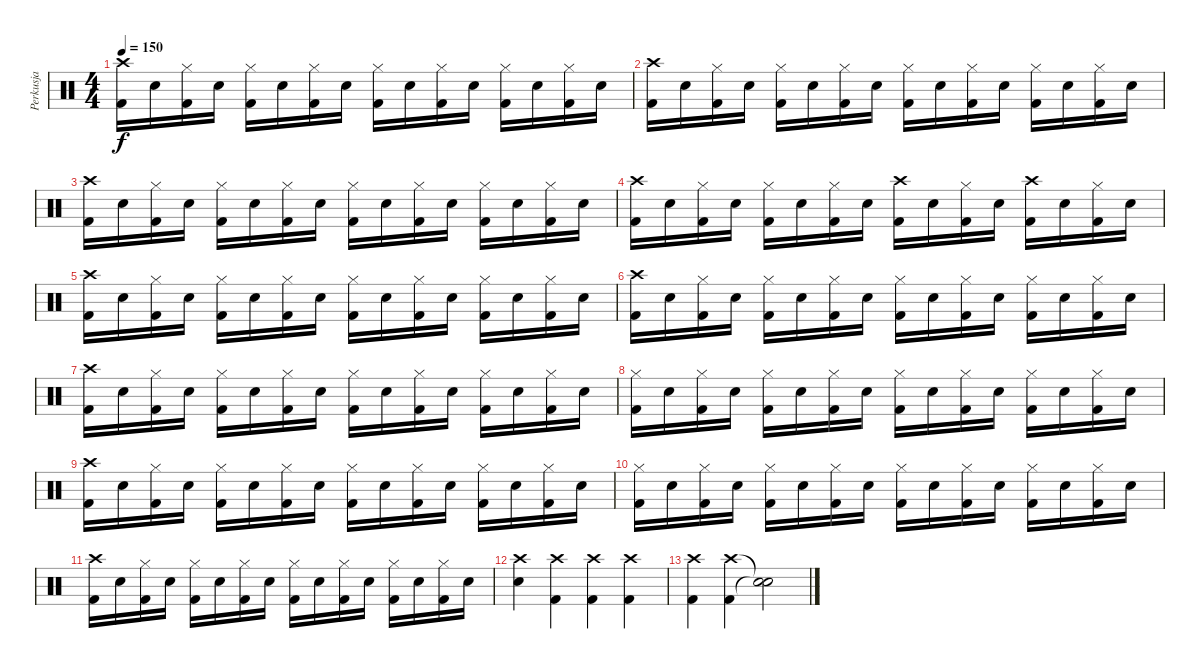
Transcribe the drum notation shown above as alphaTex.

\track ("Perkusja" "Perkusja") {instrument percussion}
\staff {score}
\articulation defaults
\ts (4 4)
\tempo 150
\clef neutral
\ks c
("Crash high (hit)" "Kick (hit) 2").16{dy f} "Snare (hit) 2".16 ("Hi-Hat (closed)" "Kick (hit) 2").16 "Snare (hit) 2".16 ("Hi-Hat (closed)" "Kick (hit) 2").16 "Snare (hit) 2".16 ("Hi-Hat (closed)" "Kick (hit) 2").16 "Snare (hit) 2".16 ("Hi-Hat (closed)" "Kick (hit) 2").16 "Snare (hit) 2".16 ("Hi-Hat (closed)" "Kick (hit) 2").16 "Snare (hit) 2".16 ("Hi-Hat (closed)" "Kick (hit) 2").16 "Snare (hit) 2".16 ("Hi-Hat (closed)" "Kick (hit) 2").16 "Snare (hit) 2".16 |
("Crash high (hit)" "Kick (hit) 2").16 "Snare (hit) 2".16 ("Hi-Hat (closed)" "Kick (hit) 2").16 "Snare (hit) 2".16 ("Hi-Hat (closed)" "Kick (hit) 2").16 "Snare (hit) 2".16 ("Hi-Hat (closed)" "Kick (hit) 2").16 "Snare (hit) 2".16 ("Hi-Hat (closed)" "Kick (hit) 2").16 "Snare (hit) 2".16 ("Hi-Hat (closed)" "Kick (hit) 2").16 "Snare (hit) 2".16 ("Hi-Hat (closed)" "Kick (hit) 2").16 "Snare (hit) 2".16 ("Hi-Hat (closed)" "Kick (hit) 2").16 "Snare (hit) 2".16 |
("Crash high (hit)" "Kick (hit) 2").16 "Snare (hit) 2".16 ("Hi-Hat (closed)" "Kick (hit) 2").16 "Snare (hit) 2".16 ("Hi-Hat (closed)" "Kick (hit) 2").16 "Snare (hit) 2".16 ("Hi-Hat (closed)" "Kick (hit) 2").16 "Snare (hit) 2".16 ("Hi-Hat (closed)" "Kick (hit) 2").16 "Snare (hit) 2".16 ("Hi-Hat (closed)" "Kick (hit) 2").16 "Snare (hit) 2".16 ("Hi-Hat (closed)" "Kick (hit) 2").16 "Snare (hit) 2".16 ("Hi-Hat (closed)" "Kick (hit) 2").16 "Snare (hit) 2".16 |
("Crash high (hit)" "Kick (hit) 2").16 "Snare (hit) 2".16 ("Hi-Hat (closed)" "Kick (hit) 2").16 "Snare (hit) 2".16 ("Hi-Hat (closed)" "Kick (hit) 2").16 "Snare (hit) 2".16 ("Hi-Hat (closed)" "Kick (hit) 2").16 "Snare (hit) 2".16 ("Crash high (hit)" "Kick (hit) 2").16 "Snare (hit) 2".16 ("Hi-Hat (closed)" "Kick (hit) 2").16 "Snare (hit) 2".16 ("Crash high (hit)" "Kick (hit) 2").16 "Snare (hit) 2".16 ("Hi-Hat (closed)" "Kick (hit) 2").16 "Snare (hit) 2".16 |
("Crash high (hit)" "Kick (hit) 2").16 "Snare (hit) 2".16 ("Hi-Hat (closed)" "Kick (hit) 2").16 "Snare (hit) 2".16 ("Hi-Hat (closed)" "Kick (hit) 2").16 "Snare (hit) 2".16 ("Hi-Hat (closed)" "Kick (hit) 2").16 "Snare (hit) 2".16 ("Hi-Hat (closed)" "Kick (hit) 2").16 "Snare (hit) 2".16 ("Hi-Hat (closed)" "Kick (hit) 2").16 "Snare (hit) 2".16 ("Hi-Hat (closed)" "Kick (hit) 2").16 "Snare (hit) 2".16 ("Hi-Hat (closed)" "Kick (hit) 2").16 "Snare (hit) 2".16 |
("Crash high (hit)" "Kick (hit) 2").16 "Snare (hit) 2".16 ("Hi-Hat (closed)" "Kick (hit) 2").16 "Snare (hit) 2".16 ("Hi-Hat (closed)" "Kick (hit) 2").16 "Snare (hit) 2".16 ("Hi-Hat (closed)" "Kick (hit) 2").16 "Snare (hit) 2".16 ("Hi-Hat (closed)" "Kick (hit) 2").16 "Snare (hit) 2".16 ("Hi-Hat (closed)" "Kick (hit) 2").16 "Snare (hit) 2".16 ("Hi-Hat (closed)" "Kick (hit) 2").16 "Snare (hit) 2".16 ("Hi-Hat (closed)" "Kick (hit) 2").16 "Snare (hit) 2".16 |
("Crash high (hit)" "Kick (hit) 2").16 "Snare (hit) 2".16 ("Hi-Hat (closed)" "Kick (hit) 2").16 "Snare (hit) 2".16 ("Hi-Hat (closed)" "Kick (hit) 2").16 "Snare (hit) 2".16 ("Hi-Hat (closed)" "Kick (hit) 2").16 "Snare (hit) 2".16 ("Hi-Hat (closed)" "Kick (hit) 2").16 "Snare (hit) 2".16 ("Hi-Hat (closed)" "Kick (hit) 2").16 "Snare (hit) 2".16 ("Hi-Hat (closed)" "Kick (hit) 2").16 "Snare (hit) 2".16 ("Hi-Hat (closed)" "Kick (hit) 2").16 "Snare (hit) 2".16 |
("Hi-Hat (closed)" "Kick (hit) 2").16 "Snare (hit) 2".16 ("Hi-Hat (closed)" "Kick (hit) 2").16 "Snare (hit) 2".16 ("Hi-Hat (closed)" "Kick (hit) 2").16 "Snare (hit) 2".16 ("Hi-Hat (closed)" "Kick (hit) 2").16 "Snare (hit) 2".16 ("Hi-Hat (closed)" "Kick (hit) 2").16 "Snare (hit) 2".16 ("Hi-Hat (closed)" "Kick (hit) 2").16 "Snare (hit) 2".16 ("Hi-Hat (closed)" "Kick (hit) 2").16 "Snare (hit) 2".16 ("Hi-Hat (closed)" "Kick (hit) 2").16 "Snare (hit) 2".16 |
("Crash high (hit)" "Kick (hit) 2").16 "Snare (hit) 2".16 ("Hi-Hat (closed)" "Kick (hit) 2").16 "Snare (hit) 2".16 ("Hi-Hat (closed)" "Kick (hit) 2").16 "Snare (hit) 2".16 ("Hi-Hat (closed)" "Kick (hit) 2").16 "Snare (hit) 2".16 ("Hi-Hat (closed)" "Kick (hit) 2").16 "Snare (hit) 2".16 ("Hi-Hat (closed)" "Kick (hit) 2").16 "Snare (hit) 2".16 ("Hi-Hat (closed)" "Kick (hit) 2").16 "Snare (hit) 2".16 ("Hi-Hat (closed)" "Kick (hit) 2").16 "Snare (hit) 2".16 |
("Hi-Hat (closed)" "Kick (hit) 2").16 "Snare (hit) 2".16 ("Hi-Hat (closed)" "Kick (hit) 2").16 "Snare (hit) 2".16 ("Hi-Hat (closed)" "Kick (hit) 2").16 "Snare (hit) 2".16 ("Hi-Hat (closed)" "Kick (hit) 2").16 "Snare (hit) 2".16 ("Hi-Hat (closed)" "Kick (hit) 2").16 "Snare (hit) 2".16 ("Hi-Hat (closed)" "Kick (hit) 2").16 "Snare (hit) 2".16 ("Hi-Hat (closed)" "Kick (hit) 2").16 "Snare (hit) 2".16 ("Hi-Hat (closed)" "Kick (hit) 2").16 "Snare (hit) 2".16 |
("Crash high (hit)" "Kick (hit) 2").16 "Snare (hit) 2".16 ("Hi-Hat (closed)" "Kick (hit) 2").16 "Snare (hit) 2".16 ("Hi-Hat (closed)" "Kick (hit) 2").16 "Snare (hit) 2".16 ("Hi-Hat (closed)" "Kick (hit) 2").16 "Snare (hit) 2".16 ("Hi-Hat (closed)" "Kick (hit) 2").16 "Snare (hit) 2".16 ("Hi-Hat (closed)" "Kick (hit) 2").16 "Snare (hit) 2".16 ("Hi-Hat (closed)" "Kick (hit) 2").16 "Snare (hit) 2".16 ("Hi-Hat (closed)" "Kick (hit) 2").16 "Snare (hit) 2".16 |
("Crash high (hit)" "Snare (hit) 2").4 ("Crash high (hit)" "Kick (hit) 2").4 ("Crash high (hit)" "Kick (hit) 2").4 ("Crash high (hit)" "Kick (hit) 2").4 |
("Crash high (hit)" "Kick (hit) 2").4 ("Crash high (hit)" "Kick (hit) 2").4 ("Snare (hit)"{t} "Snare (hit)"{t}).2
